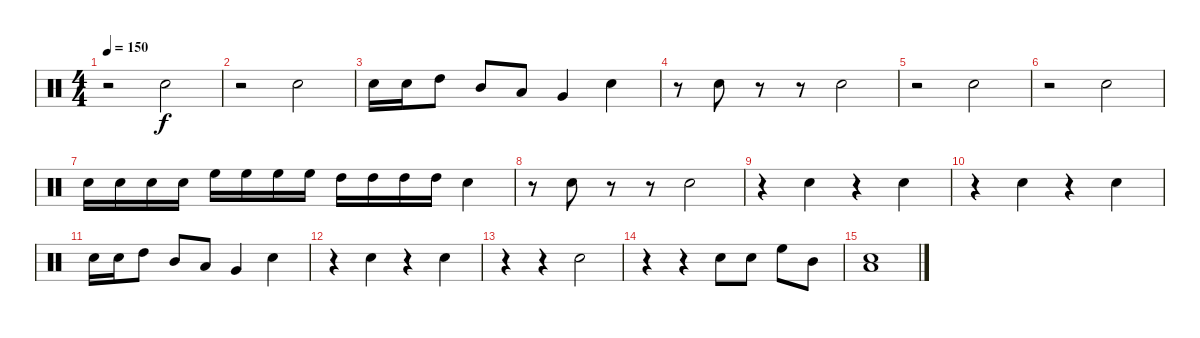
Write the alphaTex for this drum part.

\track "" {instrument percussion}
\staff {score}
\articulation defaults
\ts (4 4)
\tempo 150
\clef neutral
\ks c
r.2{dy f} "Electric Snare (hit)".2 |
r.2 "Electric Snare (hit)".2 |
"Electric Snare (hit)".16 "Electric Snare (hit)".16 "High Tom (hit)".8 "Mid Tom (hit)".8 "Low Tom (hit)".8 "Very Low Tom (hit)".4 "Electric Snare (hit)".4 |
r.8 "Electric Snare (hit)".8 r.8 r.8 "Electric Snare (hit)".2 |
r.2 "Electric Snare (hit)".2 |
r.2 "Electric Snare (hit)".2 |
"Electric Snare (hit)".16 "Electric Snare (hit)".16 "Electric Snare (hit)".16 "Electric Snare (hit)".16 "High Floor Tom (hit)".16 "High Floor Tom (hit)".16 "High Floor Tom (hit)".16 "High Floor Tom (hit)".16 "High Tom (hit)".16 "High Tom (hit)".16 "High Tom (hit)".16 "High Tom (hit)".16 "Electric Snare (hit)".4 |
r.8 "Electric Snare (hit)".8 r.8 r.8 "Electric Snare (hit)".2 |
r.4 "Electric Snare (hit)".4 r.4 "Electric Snare (hit)".4 |
r.4 "Electric Snare (hit)".4 r.4 "Electric Snare (hit)".4 |
"Electric Snare (hit)".16 "Electric Snare (hit)".16 "High Tom (hit)".8 "Mid Tom (hit)".8 "Low Tom (hit)".8 "Very Low Tom (hit)".4 "Electric Snare (hit)".4 |
r.4 "Electric Snare (hit)".4 r.4 "Electric Snare (hit)".4 |
r.4 r.4 "Electric Snare (hit)".2 |
r.4 r.4 "Electric Snare (hit)".8 "Electric Snare (hit)".8 "High Floor Tom (hit)".8 "Mid Tom (hit)".8 |
("Electric Snare (hit)" "Low Tom (hit)").1
